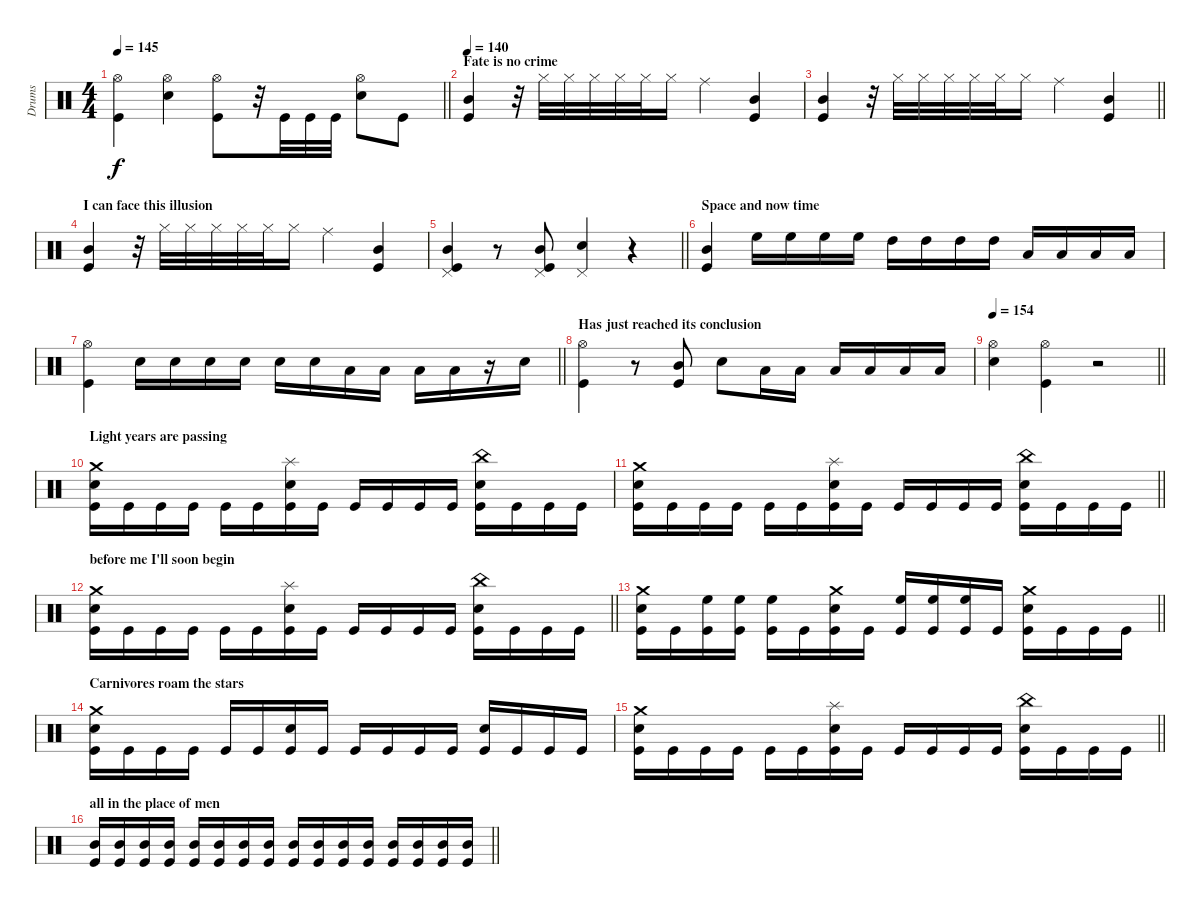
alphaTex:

\track ("Drums" "Drums") {instrument percussion}
\staff {score}
\articulation defaults
\ts (4 4)
\tempo 145
\clef neutral
\barLineRight lightlight
\ks c
("Hi-Hat (open)" "Kick (hit)").4{dy f} ("Hi-Hat (open)" "Snare (hit) 2").4 ("Hi-Hat (open)" "Kick (hit)").8 r.32 "Kick (hit)".32 "Kick (hit)".32 "Kick (hit)".32 ("Hi-Hat (open)" "Snare (hit) 2").8 "Kick (hit)".8 |
\section ("" "Fate is no crime")
\tempo 140
("Mid Tom (hit)" "Kick (hit)").4 r.32 "Hi-Hat (closed)".32 "Hi-Hat (closed)".32 "Hi-Hat (closed)".32 "Hi-Hat (closed)".32 "Hi-Hat (closed)".32 "Hi-Hat (closed)".16 "Ride (middle)".4 ("Mid Tom (hit)" "Kick (hit)").4 |
\barLineRight lightlight
("Mid Tom (hit)" "Kick (hit)").4 r.32 "Hi-Hat (closed)".32 "Hi-Hat (closed)".32 "Hi-Hat (closed)".32 "Hi-Hat (closed)".32 "Hi-Hat (closed)".32 "Hi-Hat (closed)".16 "Ride (middle)".4 ("Mid Tom (hit)" "Kick (hit)").4 |
\section ("" "I can face this illusion")
("Mid Tom (hit)" "Kick (hit)").4 r.32 "Hi-Hat (closed)".32 "Hi-Hat (closed)".32 "Hi-Hat (closed)".32 "Hi-Hat (closed)".32 "Hi-Hat (closed)".32 "Hi-Hat (closed)".16 "Ride (middle)".4 ("Mid Tom (hit)" "Kick (hit)").4 |
\barLineRight lightlight
("Pedal Hi-Hat (hit)" "Mid Tom (hit)" "Kick (hit)").4 r.8 ("Pedal Hi-Hat (hit)" "Mid Tom (hit)" "Kick (hit)").8 ("Pedal Hi-Hat (hit)" "Snare (hit) 2").4 r.4 |
\section ("" "Space and now time")
("Mid Tom (hit)" "Kick (hit)").4 "High Floor Tom (hit)".16 "High Floor Tom (hit)".16 "High Floor Tom (hit)".16 "High Floor Tom (hit)".16 "High Tom (hit)".16 "High Tom (hit)".16 "High Tom (hit)".16 "High Tom (hit)".16 "Low Tom (hit)".16 "Low Tom (hit)".16 "Low Tom (hit)".16 "Low Tom (hit)".16 |
\barLineRight lightlight
("Hi-Hat (open)" "Kick (hit)").4 "Snare (hit) 2".16 "Snare (hit) 2".16 "Snare (hit) 2".16 "Snare (hit) 2".16 "Snare (hit) 2".16 "Snare (hit) 2".16 "Low Tom (hit)".16 "Low Tom (hit)".16 "Low Tom (hit)".16 "Low Tom (hit)".16 r.16 "Snare (hit) 2".16 |
\section ("" "Has just reached its conclusion")
("Hi-Hat (open)" "Kick (hit)").4 r.8 ("Mid Tom (hit)" "Kick (hit)").8 "Snare (hit) 2".8 "Low Tom (hit)".16 "Low Tom (hit)".16 "Low Tom (hit)".16 "Low Tom (hit)".16 "Low Tom (hit)".16 "Low Tom (hit)".16 |
\tempo 154
\barLineRight lightlight
("Hi-Hat (open)" "Snare (hit) 2").4 ("Hi-Hat (open)" "Kick (hit)").4 r.2 |
\section ("" "Light years are passing")
("Crash medium (hit)" "Snare (hit) 2" "Kick (hit)").16 "Kick (hit)".16 "Kick (hit)".16 "Kick (hit)".16 "Kick (hit)".16 "Kick (hit)".16 ("Splash (hit)" "Snare (hit) 2" "Kick (hit)").16 "Kick (hit)".16 "Kick (hit)".16 "Kick (hit)".16 "Kick (hit)".16 "Kick (hit)".16 ("China (hit)" "Snare (hit) 2" "Kick (hit)").16 "Kick (hit)".16 "Kick (hit)".16 "Kick (hit)".16 |
\barLineRight lightlight
("Crash medium (hit)" "Snare (hit) 2" "Kick (hit)").16 "Kick (hit)".16 "Kick (hit)".16 "Kick (hit)".16 "Kick (hit)".16 "Kick (hit)".16 ("Splash (hit)" "Snare (hit) 2" "Kick (hit)").16 "Kick (hit)".16 "Kick (hit)".16 "Kick (hit)".16 "Kick (hit)".16 "Kick (hit)".16 ("China (hit)" "Snare (hit) 2" "Kick (hit)").16 "Kick (hit)".16 "Kick (hit)".16 "Kick (hit)".16 |
\section ("" "before me I'll soon begin")
\barLineRight lightlight
("Crash medium (hit)" "Snare (hit) 2" "Kick (hit)").16 "Kick (hit)".16 "Kick (hit)".16 "Kick (hit)".16 "Kick (hit)".16 "Kick (hit)".16 ("Splash (hit)" "Snare (hit) 2" "Kick (hit)").16 "Kick (hit)".16 "Kick (hit)".16 "Kick (hit)".16 "Kick (hit)".16 "Kick (hit)".16 ("China (hit)" "Snare (hit) 2" "Kick (hit)").16 "Kick (hit)".16 "Kick (hit)".16 "Kick (hit)".16 |
\section ("" "")
\barLineRight lightlight
("Crash medium (hit)" "Snare (hit) 2" "Kick (hit)").16 "Kick (hit)".16 ("High Floor Tom (hit)" "Kick (hit)").16 ("High Floor Tom (hit)" "Kick (hit)").16 ("High Floor Tom (hit)" "Kick (hit)").16 "Kick (hit)".16 ("Crash medium (hit)" "Snare (hit) 2" "Kick (hit)").16 "Kick (hit)".16 ("High Floor Tom (hit)" "Kick (hit)").16 ("High Floor Tom (hit)" "Kick (hit)").16 ("High Floor Tom (hit)" "Kick (hit)").16 "Kick (hit)".16 ("Crash medium (hit)" "Snare (hit) 2" "Kick (hit)").16 "Kick (hit)".16 "Kick (hit)".16 "Kick (hit)".16 |
\section ("" "Carnivores roam the stars")
("Crash medium (hit)" "Snare (hit) 2" "Kick (hit)").16 "Kick (hit)".16 "Kick (hit)".16 "Kick (hit)".16 "Kick (hit)".16 "Kick (hit)".16 ("Snare (hit) 2" "Kick (hit)").16 "Kick (hit)".16 "Kick (hit)".16 "Kick (hit)".16 "Kick (hit)".16 "Kick (hit)".16 ("Snare (hit) 2" "Kick (hit)").16 "Kick (hit)".16 "Kick (hit)".16 "Kick (hit)".16 |
\barLineRight lightlight
("Crash medium (hit)" "Snare (hit) 2" "Kick (hit)").16 "Kick (hit)".16 "Kick (hit)".16 "Kick (hit)".16 "Kick (hit)".16 "Kick (hit)".16 ("Splash (hit)" "Snare (hit) 2" "Kick (hit)").16 "Kick (hit)".16 "Kick (hit)".16 "Kick (hit)".16 "Kick (hit)".16 "Kick (hit)".16 ("China (hit)" "Snare (hit) 2" "Kick (hit)").16 "Kick (hit)".16 "Kick (hit)".16 "Kick (hit)".16 |
\section ("" "all in the place of men")
\barLineRight lightlight
("Mid Tom (hit)" "Kick (hit)").16 ("Mid Tom (hit)" "Kick (hit)").16 ("Mid Tom (hit)" "Kick (hit)").16 ("Mid Tom (hit)" "Kick (hit)").16 ("Mid Tom (hit)" "Kick (hit)").16 ("Mid Tom (hit)" "Kick (hit)").16 ("Mid Tom (hit)" "Kick (hit)").16 ("Mid Tom (hit)" "Kick (hit)").16 ("Mid Tom (hit)" "Kick (hit)").16 ("Mid Tom (hit)" "Kick (hit)").16 ("Mid Tom (hit)" "Kick (hit)").16 ("Mid Tom (hit)" "Kick (hit)").16 ("Mid Tom (hit)" "Kick (hit)").16 ("Mid Tom (hit)" "Kick (hit)").16 ("Mid Tom (hit)" "Kick (hit)").16 ("Mid Tom (hit)" "Kick (hit)").16
